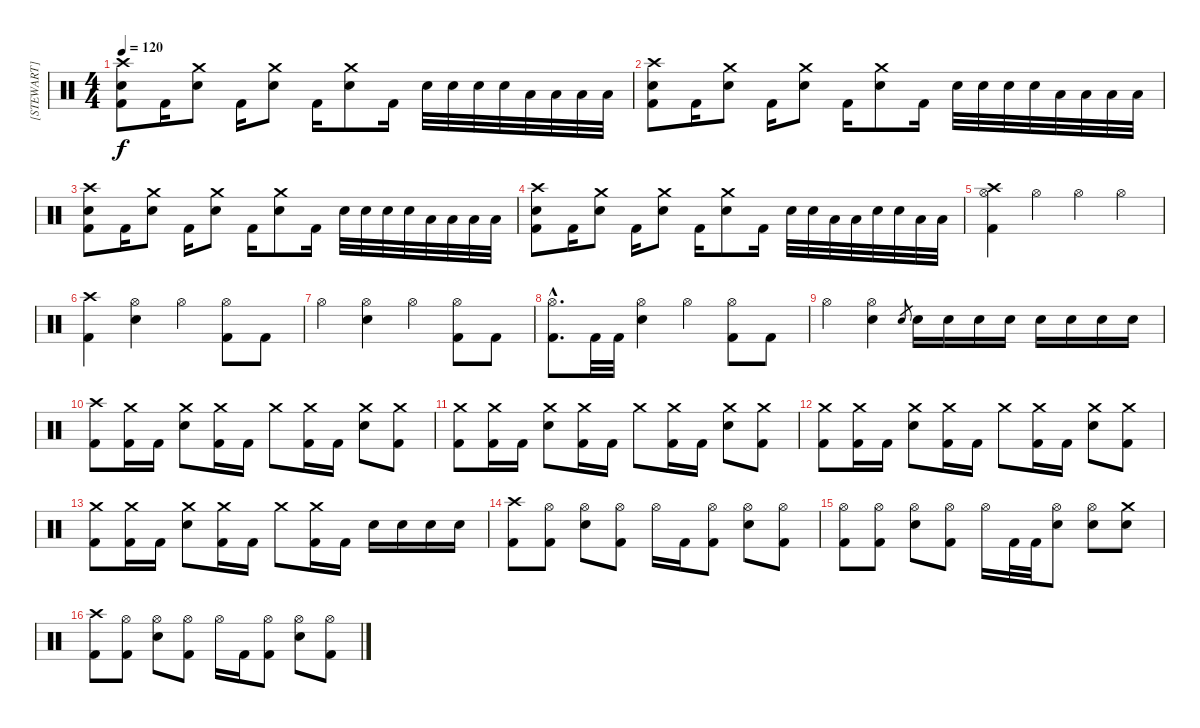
\track ("[STEWART]" "[STEWART]") {instrument percussion}
\staff {score}
\articulation defaults
\ts (4 4)
\tempo 120
\clef neutral
\ks c
("Crash high (hit)" "Electric Snare (hit)" "Kick (hit) 2").8{dy f} "Kick (hit) 2".16 ("Crash medium (hit)" "Electric Snare (hit)").8 "Kick (hit) 2".16 ("Crash medium (hit)" "Electric Snare (hit)").8 "Kick (hit) 2".16 ("Crash medium (hit)" "Electric Snare (hit)").8 "Kick (hit) 2".16 "Electric Snare (hit)".32 "Electric Snare (hit)".32 "Electric Snare (hit)".32 "Electric Snare (hit)".32 "Low Tom (hit)".32 "Low Tom (hit)".32 "Low Tom (hit)".32 "Low Tom (hit)".32 |
("Crash high (hit)" "Electric Snare (hit)" "Kick (hit) 2").8 "Kick (hit) 2".16 ("Crash medium (hit)" "Electric Snare (hit)").8 "Kick (hit) 2".16 ("Crash medium (hit)" "Electric Snare (hit)").8 "Kick (hit) 2".16 ("Crash medium (hit)" "Electric Snare (hit)").8 "Kick (hit) 2".16 "Electric Snare (hit)".32 "Electric Snare (hit)".32 "Electric Snare (hit)".32 "Electric Snare (hit)".32 "Low Tom (hit)".32 "Low Tom (hit)".32 "Low Tom (hit)".32 "Low Tom (hit)".32 |
("Crash high (hit)" "Electric Snare (hit)" "Kick (hit) 2").8 "Kick (hit) 2".16 ("Crash medium (hit)" "Electric Snare (hit)").8 "Kick (hit) 2".16 ("Crash medium (hit)" "Electric Snare (hit)").8 "Kick (hit) 2".16 ("Crash medium (hit)" "Electric Snare (hit)").8 "Kick (hit) 2".16 "Electric Snare (hit)".32 "Electric Snare (hit)".32 "Electric Snare (hit)".32 "Electric Snare (hit)".32 "Low Tom (hit)".32 "Low Tom (hit)".32 "Low Tom (hit)".32 "Low Tom (hit)".32 |
("Crash high (hit)" "Electric Snare (hit)" "Kick (hit) 2").8 "Kick (hit) 2".16 ("Crash medium (hit)" "Electric Snare (hit)").8 "Kick (hit) 2".16 ("Crash medium (hit)" "Electric Snare (hit)").8 "Kick (hit) 2".16 ("Crash medium (hit)" "Electric Snare (hit)").8 "Kick (hit) 2".16 "Electric Snare (hit)".32 "Electric Snare (hit)".32 "Low Tom (hit)".32 "Low Tom (hit)".32 "Electric Snare (hit)".32 "Electric Snare (hit)".32 "Low Tom (hit)".32 "Low Tom (hit)".32 |
("Crash high (hit)" "Hi-Hat (open)" "Kick (hit) 2").4 "Hi-Hat (open)".4 "Hi-Hat (open)".4 "Hi-Hat (open)".4 |
("Crash high (hit)" "Kick (hit) 2").4 ("Hi-Hat (open)" "Electric Snare (hit)").4 "Hi-Hat (open)".4 ("Hi-Hat (open)" "Kick (hit) 2").8 "Kick (hit) 2".8 |
"Hi-Hat (open)".4 ("Hi-Hat (open)" "Electric Snare (hit)").4 "Hi-Hat (open)".4 ("Hi-Hat (open)" "Kick (hit) 2").8 "Kick (hit) 2".8 |
("Hi-Hat (open)"{hac} "Kick (hit) 2"{hac}).8{d} "Kick (hit) 2".32 "Kick (hit) 2".32 ("Hi-Hat (open)" "Electric Snare (hit)").4 "Hi-Hat (open)".4 ("Hi-Hat (open)" "Kick (hit) 2").8 "Kick (hit) 2".8 |
"Hi-Hat (open)".4 ("Hi-Hat (open)" "Electric Snare (hit)").4 "Electric Snare (hit)".8{gr} "Electric Snare (hit)".16 "Electric Snare (hit)".16 "Electric Snare (hit)".16 "Electric Snare (hit)".16 "Electric Snare (hit)".16 "Electric Snare (hit)".16 "Electric Snare (hit)".16 "Electric Snare (hit)".16 |
("Crash high (hit)" "Kick (hit) 2").8 ("Crash medium (hit)" "Kick (hit) 2").16 "Kick (hit) 2".16 ("Crash medium (hit)" "Electric Snare (hit)").8 ("Crash medium (hit)" "Kick (hit) 2").16 "Kick (hit) 2".16 "Crash medium (hit)".8 ("Crash medium (hit)" "Kick (hit) 2").16 "Kick (hit) 2".16 ("Crash medium (hit)" "Electric Snare (hit)").8 ("Crash medium (hit)" "Kick (hit) 2").8 |
("Crash medium (hit)" "Kick (hit) 2").8 ("Crash medium (hit)" "Kick (hit) 2").16 "Kick (hit) 2".16 ("Crash medium (hit)" "Electric Snare (hit)").8 ("Crash medium (hit)" "Kick (hit) 2").16 "Kick (hit) 2".16 "Crash medium (hit)".8 ("Crash medium (hit)" "Kick (hit) 2").16 "Kick (hit) 2".16 ("Crash medium (hit)" "Electric Snare (hit)").8 ("Crash medium (hit)" "Kick (hit) 2").8 |
("Crash medium (hit)" "Kick (hit) 2").8 ("Crash medium (hit)" "Kick (hit) 2").16 "Kick (hit) 2".16 ("Crash medium (hit)" "Electric Snare (hit)").8 ("Crash medium (hit)" "Kick (hit) 2").16 "Kick (hit) 2".16 "Crash medium (hit)".8 ("Crash medium (hit)" "Kick (hit) 2").16 "Kick (hit) 2".16 ("Crash medium (hit)" "Electric Snare (hit)").8 ("Crash medium (hit)" "Kick (hit) 2").8 |
("Crash medium (hit)" "Kick (hit) 2").8 ("Crash medium (hit)" "Kick (hit) 2").16 "Kick (hit) 2".16 ("Crash medium (hit)" "Electric Snare (hit)").8 ("Crash medium (hit)" "Kick (hit) 2").16 "Kick (hit) 2".16 "Crash medium (hit)".8 ("Crash medium (hit)" "Kick (hit) 2").16 "Kick (hit) 2".16 "Electric Snare (hit)".16 "Electric Snare (hit)".16 "Electric Snare (hit)".16 "Electric Snare (hit)".16 |
("Crash high (hit)" "Kick (hit) 2").8 ("Hi-Hat (open)" "Kick (hit) 2").8 ("Hi-Hat (open)" "Electric Snare (hit)").8 ("Hi-Hat (open)" "Kick (hit) 2").8 "Hi-Hat (open)".16 "Kick (hit) 2".16 ("Hi-Hat (open)" "Kick (hit) 2").8 ("Hi-Hat (open)" "Electric Snare (hit)").8 ("Hi-Hat (open)" "Kick (hit) 2").8 |
("Hi-Hat (open)" "Kick (hit) 2").8 ("Hi-Hat (open)" "Kick (hit) 2").8 ("Hi-Hat (open)" "Electric Snare (hit)").8 ("Hi-Hat (open)" "Kick (hit) 2").8 "Hi-Hat (open)".16 "Kick (hit) 2".32 "Kick (hit) 2".32 ("Hi-Hat (open)" "Electric Snare (hit)").8 ("Hi-Hat (open)" "Electric Snare (hit)").8 ("Crash medium (hit)" "Electric Snare (hit)").8 |
("Crash high (hit)" "Kick (hit) 2").8 ("Hi-Hat (open)" "Kick (hit) 2").8 ("Hi-Hat (open)" "Electric Snare (hit)").8 ("Hi-Hat (open)" "Kick (hit) 2").8 "Hi-Hat (open)".16 "Kick (hit) 2".16 ("Hi-Hat (open)" "Kick (hit) 2").8 ("Hi-Hat (open)" "Electric Snare (hit)").8 ("Hi-Hat (open)" "Kick (hit) 2").8
